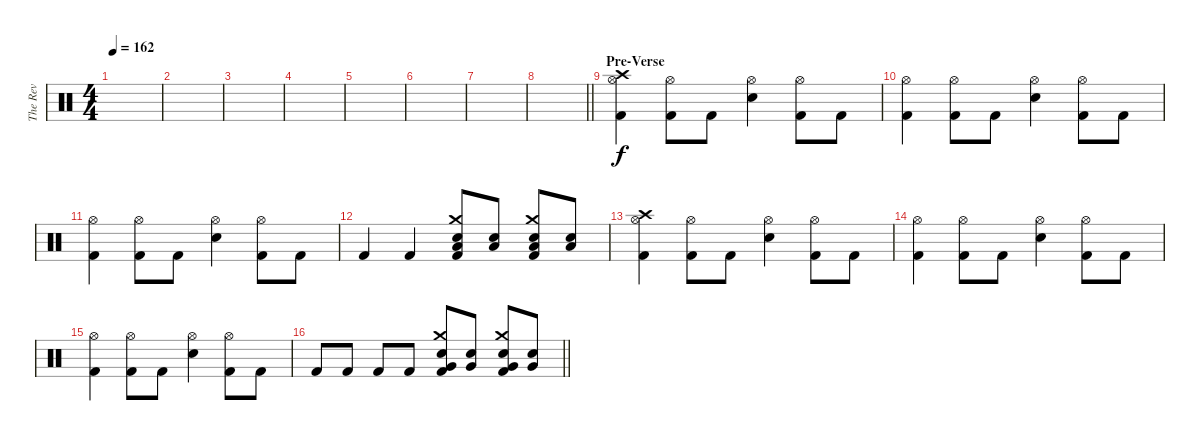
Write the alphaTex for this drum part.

\track ("The Rev" "The Rev") {instrument percussion}
\staff {score}
\articulation defaults
\ts (4 4)
\tempo 162
\clef neutral
\ks c
|
|
|
|
|
|
|
\barLineRight lightlight
|
\section ("" "Pre-Verse")
("Hi-Hat (open)" "Crash high (hit)" "Kick (hit) 2").4 ("Hi-Hat (open)" "Kick (hit) 2").8 "Kick (hit) 2".8 ("Hi-Hat (open)" "Electric Snare (hit)").4 ("Hi-Hat (open)" "Kick (hit) 2").8 "Kick (hit) 2".8 |
("Hi-Hat (open)" "Kick (hit) 2").4 ("Hi-Hat (open)" "Kick (hit) 2").8 "Kick (hit) 2".8 ("Hi-Hat (open)" "Electric Snare (hit)").4 ("Hi-Hat (open)" "Kick (hit) 2").8 "Kick (hit) 2".8 |
("Hi-Hat (open)" "Kick (hit) 2").4 ("Hi-Hat (open)" "Kick (hit) 2").8 "Kick (hit) 2".8 ("Hi-Hat (open)" "Electric Snare (hit)").4 ("Hi-Hat (open)" "Kick (hit) 2").8 "Kick (hit) 2".8 |
"Kick (hit) 2".4 "Kick (hit) 2".4 ("Crash medium (hit)" "Low Floor Tom (hit)" "Electric Snare (hit)" "Kick (hit) 2").8 ("Low Floor Tom (hit)" "Electric Snare (hit)").8 ("Crash medium (hit)" "Low Floor Tom (hit)" "Electric Snare (hit)" "Kick (hit) 2").8 ("Low Floor Tom (hit)" "Electric Snare (hit)").8 |
("Hi-Hat (open)" "Crash high (hit)" "Kick (hit) 2").4 ("Hi-Hat (open)" "Kick (hit) 2").8 "Kick (hit) 2".8 ("Hi-Hat (open)" "Electric Snare (hit)").4 ("Hi-Hat (open)" "Kick (hit) 2").8 "Kick (hit) 2".8 |
("Hi-Hat (open)" "Kick (hit) 2").4 ("Hi-Hat (open)" "Kick (hit) 2").8 "Kick (hit) 2".8 ("Hi-Hat (open)" "Electric Snare (hit)").4 ("Hi-Hat (open)" "Kick (hit) 2").8 "Kick (hit) 2".8 |
("Hi-Hat (open)" "Kick (hit) 2").4 ("Hi-Hat (open)" "Kick (hit) 2").8 "Kick (hit) 2".8 ("Hi-Hat (open)" "Electric Snare (hit)").4 ("Hi-Hat (open)" "Kick (hit) 2").8 "Kick (hit) 2".8 |
\barLineRight lightlight "Kick (hit) 2".8 "Kick (hit) 2".8 "Kick (hit) 2".8 "Kick (hit) 2".8
("Crash medium (hit)" "Very Low Tom (hit)" "Electric Snare (hit)" "Kick (hit) 2").8 ("Very Low Tom (hit)" "Electric Snare (hit)").8 ("Crash medium (hit)" "Very Low Tom (hit)" "Electric Snare (hit)" "Kick (hit) 2").8 ("Very Low Tom (hit)" "Electric Snare (hit)").8
